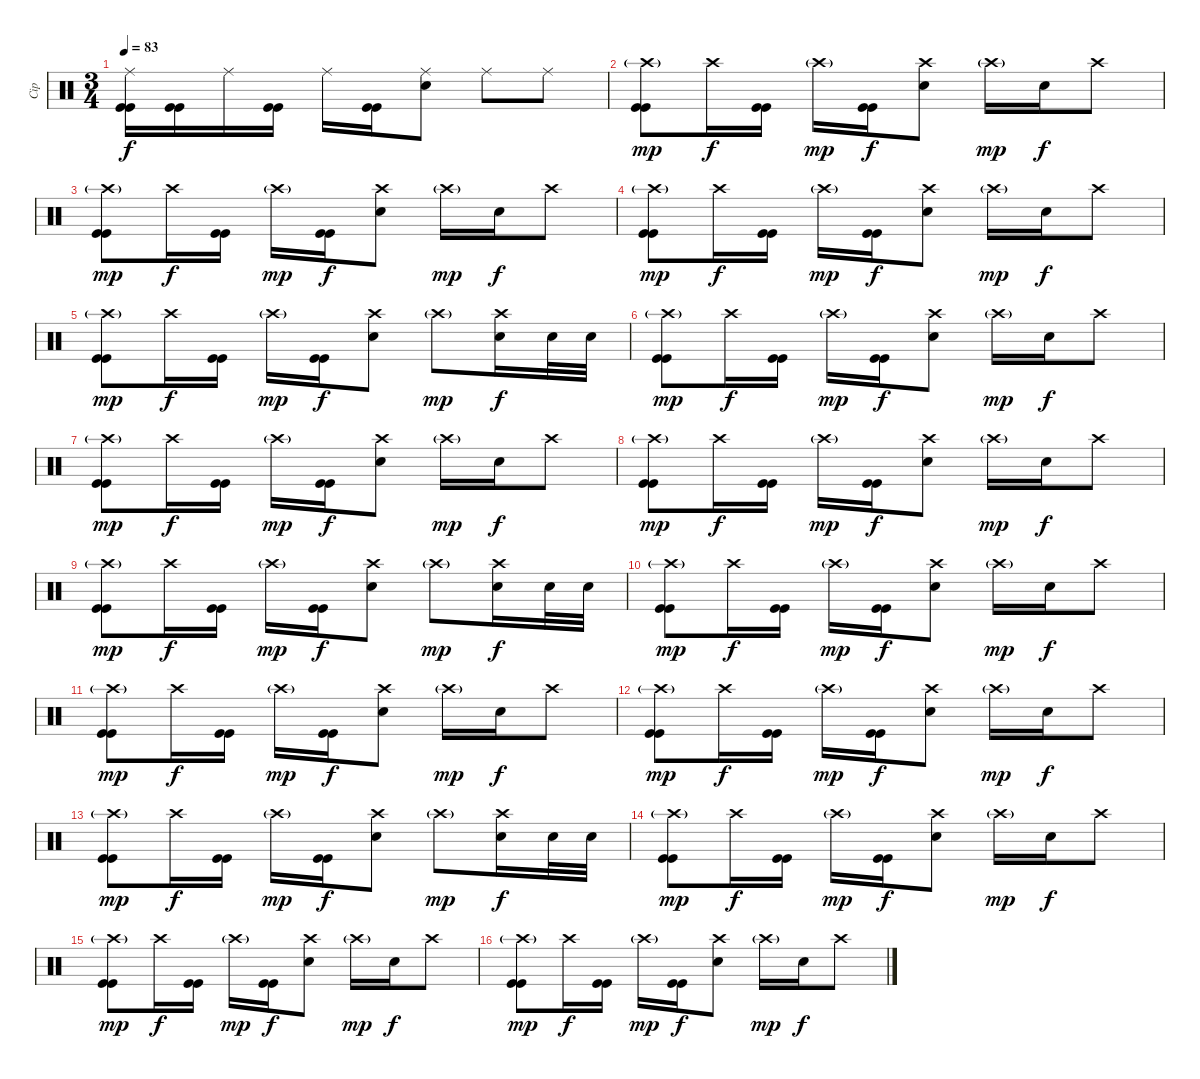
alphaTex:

\track ("Cip" "Cip") {instrument percussion}
\staff {score}
\articulation defaults
\ts (3 4)
\tempo 83
\clef neutral
\ks c
("Ride (middle)" "Kick (hit)" "Kick (hit)").16{dy f} ("Kick (hit)" "Kick (hit)").16 "Ride (middle)".16 ("Kick (hit)" "Kick (hit)").16 "Ride (middle)".16 ("Kick (hit)" "Kick (hit)").16 ("Ride (middle)" "Electric Snare (hit)").8 "Ride (middle)".8 "Ride (middle)".8 |
("Crash high (hit)"{g} "Kick (hit)" "Kick (hit)").8{dy mp} "Crash high (hit)".16{dy f} ("Kick (hit)" "Kick (hit)").16 "Crash high (hit)"{g}.16{dy mp} ("Kick (hit)" "Kick (hit)").16{dy f} ("Crash high (hit)" "Electric Snare (hit)").8 "Crash high (hit)"{g}.16{dy mp} "Electric Snare (hit)".16{dy f} "Crash high (hit)".8 |
("Crash high (hit)"{g} "Kick (hit)" "Kick (hit)").8{dy mp} "Crash high (hit)".16{dy f} ("Kick (hit)" "Kick (hit)").16 "Crash high (hit)"{g}.16{dy mp} ("Kick (hit)" "Kick (hit)").16{dy f} ("Crash high (hit)" "Electric Snare (hit)").8 "Crash high (hit)"{g}.16{dy mp} "Electric Snare (hit)".16{dy f} "Crash high (hit)".8 |
("Crash high (hit)"{g} "Kick (hit)" "Kick (hit)").8{dy mp} "Crash high (hit)".16{dy f} ("Kick (hit)" "Kick (hit)").16 "Crash high (hit)"{g}.16{dy mp} ("Kick (hit)" "Kick (hit)").16{dy f} ("Crash high (hit)" "Electric Snare (hit)").8 "Crash high (hit)"{g}.16{dy mp} "Electric Snare (hit)".16{dy f} "Crash high (hit)".8 |
("Crash high (hit)"{g} "Kick (hit)" "Kick (hit)").8{dy mp} "Crash high (hit)".16{dy f} ("Kick (hit)" "Kick (hit)").16 "Crash high (hit)"{g}.16{dy mp} ("Kick (hit)" "Kick (hit)").16{dy f} ("Crash high (hit)" "Electric Snare (hit)").8 "Crash high (hit)"{g}.8{dy mp} ("Crash high (hit)" "Electric Snare (hit)").16{dy f} "Electric Snare (hit)".32 "Electric Snare (hit)".32 |
("Crash high (hit)"{g} "Kick (hit)" "Kick (hit)").8{dy mp} "Crash high (hit)".16{dy f} ("Kick (hit)" "Kick (hit)").16 "Crash high (hit)"{g}.16{dy mp} ("Kick (hit)" "Kick (hit)").16{dy f} ("Crash high (hit)" "Electric Snare (hit)").8 "Crash high (hit)"{g}.16{dy mp} "Electric Snare (hit)".16{dy f} "Crash high (hit)".8 |
("Crash high (hit)"{g} "Kick (hit)" "Kick (hit)").8{dy mp} "Crash high (hit)".16{dy f} ("Kick (hit)" "Kick (hit)").16 "Crash high (hit)"{g}.16{dy mp} ("Kick (hit)" "Kick (hit)").16{dy f} ("Crash high (hit)" "Electric Snare (hit)").8 "Crash high (hit)"{g}.16{dy mp} "Electric Snare (hit)".16{dy f} "Crash high (hit)".8 |
("Crash high (hit)"{g} "Kick (hit)" "Kick (hit)").8{dy mp} "Crash high (hit)".16{dy f} ("Kick (hit)" "Kick (hit)").16 "Crash high (hit)"{g}.16{dy mp} ("Kick (hit)" "Kick (hit)").16{dy f} ("Crash high (hit)" "Electric Snare (hit)").8 "Crash high (hit)"{g}.16{dy mp} "Electric Snare (hit)".16{dy f} "Crash high (hit)".8 |
("Crash high (hit)"{g} "Kick (hit)" "Kick (hit)").8{dy mp} "Crash high (hit)".16{dy f} ("Kick (hit)" "Kick (hit)").16 "Crash high (hit)"{g}.16{dy mp} ("Kick (hit)" "Kick (hit)").16{dy f} ("Crash high (hit)" "Electric Snare (hit)").8 "Crash high (hit)"{g}.8{dy mp} ("Crash high (hit)" "Electric Snare (hit)").16{dy f} "Electric Snare (hit)".32 "Electric Snare (hit)".32 |
("Crash high (hit)"{g} "Kick (hit)" "Kick (hit)").8{dy mp} "Crash high (hit)".16{dy f} ("Kick (hit)" "Kick (hit)").16 "Crash high (hit)"{g}.16{dy mp} ("Kick (hit)" "Kick (hit)").16{dy f} ("Crash high (hit)" "Electric Snare (hit)").8 "Crash high (hit)"{g}.16{dy mp} "Electric Snare (hit)".16{dy f} "Crash high (hit)".8 |
("Crash high (hit)"{g} "Kick (hit)" "Kick (hit)").8{dy mp} "Crash high (hit)".16{dy f} ("Kick (hit)" "Kick (hit)").16 "Crash high (hit)"{g}.16{dy mp} ("Kick (hit)" "Kick (hit)").16{dy f} ("Crash high (hit)" "Electric Snare (hit)").8 "Crash high (hit)"{g}.16{dy mp} "Electric Snare (hit)".16{dy f} "Crash high (hit)".8 |
("Crash high (hit)"{g} "Kick (hit)" "Kick (hit)").8{dy mp} "Crash high (hit)".16{dy f} ("Kick (hit)" "Kick (hit)").16 "Crash high (hit)"{g}.16{dy mp} ("Kick (hit)" "Kick (hit)").16{dy f} ("Crash high (hit)" "Electric Snare (hit)").8 "Crash high (hit)"{g}.16{dy mp} "Electric Snare (hit)".16{dy f} "Crash high (hit)".8 |
("Crash high (hit)"{g} "Kick (hit)" "Kick (hit)").8{dy mp} "Crash high (hit)".16{dy f} ("Kick (hit)" "Kick (hit)").16 "Crash high (hit)"{g}.16{dy mp} ("Kick (hit)" "Kick (hit)").16{dy f} ("Crash high (hit)" "Electric Snare (hit)").8 "Crash high (hit)"{g}.8{dy mp} ("Crash high (hit)" "Electric Snare (hit)").16{dy f} "Electric Snare (hit)".32 "Electric Snare (hit)".32 |
("Crash high (hit)"{g} "Kick (hit)" "Kick (hit)").8{dy mp} "Crash high (hit)".16{dy f} ("Kick (hit)" "Kick (hit)").16 "Crash high (hit)"{g}.16{dy mp} ("Kick (hit)" "Kick (hit)").16{dy f} ("Crash high (hit)" "Electric Snare (hit)").8 "Crash high (hit)"{g}.16{dy mp} "Electric Snare (hit)".16{dy f} "Crash high (hit)".8 |
("Crash high (hit)"{g} "Kick (hit)" "Kick (hit)").8{dy mp} "Crash high (hit)".16{dy f} ("Kick (hit)" "Kick (hit)").16 "Crash high (hit)"{g}.16{dy mp} ("Kick (hit)" "Kick (hit)").16{dy f} ("Crash high (hit)" "Electric Snare (hit)").8 "Crash high (hit)"{g}.16{dy mp} "Electric Snare (hit)".16{dy f} "Crash high (hit)".8 |
("Crash high (hit)"{g} "Kick (hit)" "Kick (hit)").8{dy mp} "Crash high (hit)".16{dy f} ("Kick (hit)" "Kick (hit)").16 "Crash high (hit)"{g}.16{dy mp} ("Kick (hit)" "Kick (hit)").16{dy f} ("Crash high (hit)" "Electric Snare (hit)").8 "Crash high (hit)"{g}.16{dy mp} "Electric Snare (hit)".16{dy f} "Crash high (hit)".8
